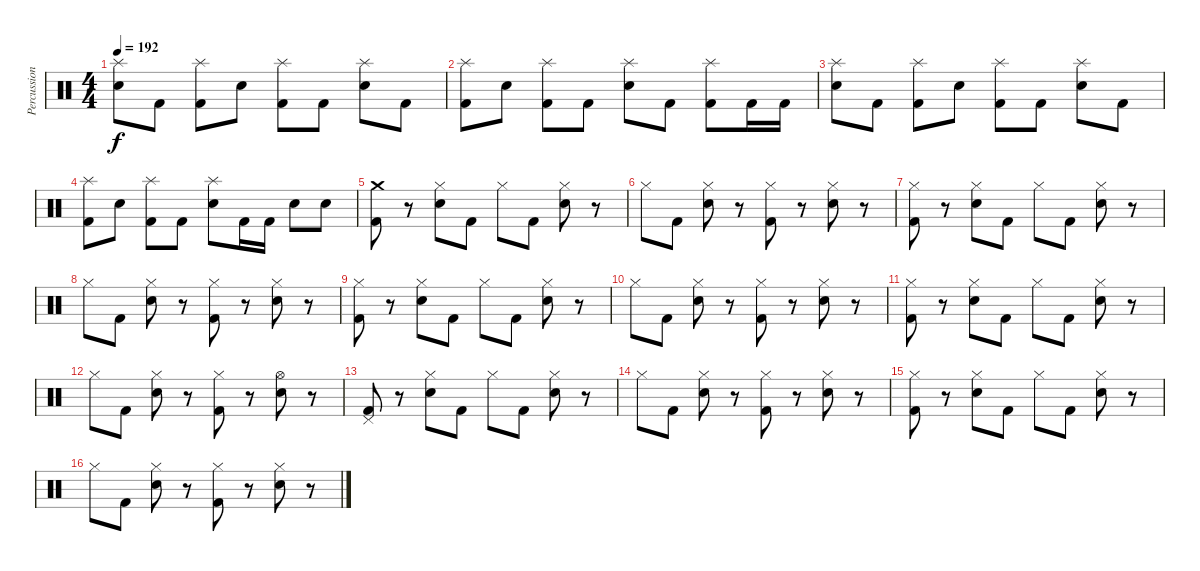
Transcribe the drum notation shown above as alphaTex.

\track ("Percussion" "Percussion") {instrument percussion}
\staff {score}
\articulation defaults
\ts (4 4)
\tempo 192
\clef neutral
\ks c
("Splash (hit)" "Electric Snare (hit)").8{dy f} "Kick (hit) 2".8 ("Splash (hit)" "Kick (hit) 2").8 "Electric Snare (hit)".8 ("Splash (hit)" "Kick (hit) 2").8 "Kick (hit) 2".8 ("Splash (hit)" "Electric Snare (hit)").8 "Kick (hit) 2".8 |
("Splash (hit)" "Kick (hit) 2").8 "Electric Snare (hit)".8 ("Splash (hit)" "Kick (hit) 2").8 "Kick (hit) 2".8 ("Splash (hit)" "Electric Snare (hit)").8 "Kick (hit) 2".8 ("Splash (hit)" "Kick (hit) 2").8 "Kick (hit) 2".16 "Kick (hit) 2".16 |
("Splash (hit)" "Electric Snare (hit)").8 "Kick (hit) 2".8 ("Splash (hit)" "Kick (hit) 2").8 "Electric Snare (hit)".8 ("Splash (hit)" "Kick (hit) 2").8 "Kick (hit) 2".8 ("Splash (hit)" "Electric Snare (hit)").8 "Kick (hit) 2".8 |
("Splash (hit)" "Kick (hit) 2").8 "Electric Snare (hit)".8 ("Splash (hit)" "Kick (hit) 2").8 "Kick (hit) 2".8 ("Splash (hit)" "Electric Snare (hit)").8 "Kick (hit) 2".16 "Kick (hit) 2".16 "Electric Snare (hit)".8 "Electric Snare (hit)".8 |
("Crash medium (hit)" "Kick (hit) 2").8 r.8 ("Hi-Hat (closed)" "Electric Snare (hit)").8 "Kick (hit) 2".8 "Hi-Hat (closed)".8 "Kick (hit) 2".8 ("Hi-Hat (closed)" "Electric Snare (hit)").8 r.8 |
"Hi-Hat (closed)".8 "Kick (hit) 2".8 ("Hi-Hat (closed)" "Electric Snare (hit)").8 r.8 ("Hi-Hat (closed)" "Kick (hit) 2").8 r.8 ("Hi-Hat (closed)" "Electric Snare (hit)").8 r.8 |
("Hi-Hat (closed)" "Kick (hit) 2").8 r.8 ("Hi-Hat (closed)" "Electric Snare (hit)").8 "Kick (hit) 2".8 "Hi-Hat (closed)".8 "Kick (hit) 2".8 ("Hi-Hat (closed)" "Electric Snare (hit)").8 r.8 |
"Hi-Hat (closed)".8 "Kick (hit) 2".8 ("Hi-Hat (closed)" "Electric Snare (hit)").8 r.8 ("Hi-Hat (closed)" "Kick (hit) 2").8 r.8 ("Hi-Hat (closed)" "Electric Snare (hit)").8 r.8 |
("Hi-Hat (closed)" "Kick (hit) 2").8 r.8 ("Hi-Hat (closed)" "Electric Snare (hit)").8 "Kick (hit) 2".8 "Hi-Hat (closed)".8 "Kick (hit) 2".8 ("Hi-Hat (closed)" "Electric Snare (hit)").8 r.8 |
"Hi-Hat (closed)".8 "Kick (hit) 2".8 ("Hi-Hat (closed)" "Electric Snare (hit)").8 r.8 ("Hi-Hat (closed)" "Kick (hit) 2").8 r.8 ("Hi-Hat (closed)" "Electric Snare (hit)").8 r.8 |
("Hi-Hat (closed)" "Kick (hit) 2").8 r.8 ("Hi-Hat (closed)" "Electric Snare (hit)").8 "Kick (hit) 2".8 "Hi-Hat (closed)".8 "Kick (hit) 2".8 ("Hi-Hat (closed)" "Electric Snare (hit)").8 r.8 |
"Hi-Hat (closed)".8 "Kick (hit) 2".8 ("Hi-Hat (closed)" "Electric Snare (hit)").8 r.8 ("Hi-Hat (closed)" "Kick (hit) 2").8 r.8 ("Hi-Hat (open)" "Electric Snare (hit)").8 r.8 |
("Pedal Hi-Hat (hit)" "Kick (hit) 2").8 r.8 ("Hi-Hat (closed)" "Electric Snare (hit)").8 "Kick (hit) 2".8 "Hi-Hat (closed)".8 "Kick (hit) 2".8 ("Hi-Hat (closed)" "Electric Snare (hit)").8 r.8 |
"Hi-Hat (closed)".8 "Kick (hit) 2".8 ("Hi-Hat (closed)" "Electric Snare (hit)").8 r.8 ("Hi-Hat (closed)" "Kick (hit) 2").8 r.8 ("Hi-Hat (closed)" "Electric Snare (hit)").8 r.8 |
("Hi-Hat (closed)" "Kick (hit) 2").8 r.8 ("Hi-Hat (closed)" "Electric Snare (hit)").8 "Kick (hit) 2".8 "Hi-Hat (closed)".8 "Kick (hit) 2".8 ("Hi-Hat (closed)" "Electric Snare (hit)").8 r.8 |
"Hi-Hat (closed)".8 "Kick (hit) 2".8 ("Hi-Hat (closed)" "Electric Snare (hit)").8 r.8 ("Hi-Hat (closed)" "Kick (hit) 2").8 r.8 ("Hi-Hat (closed)" "Electric Snare (hit)").8 r.8
